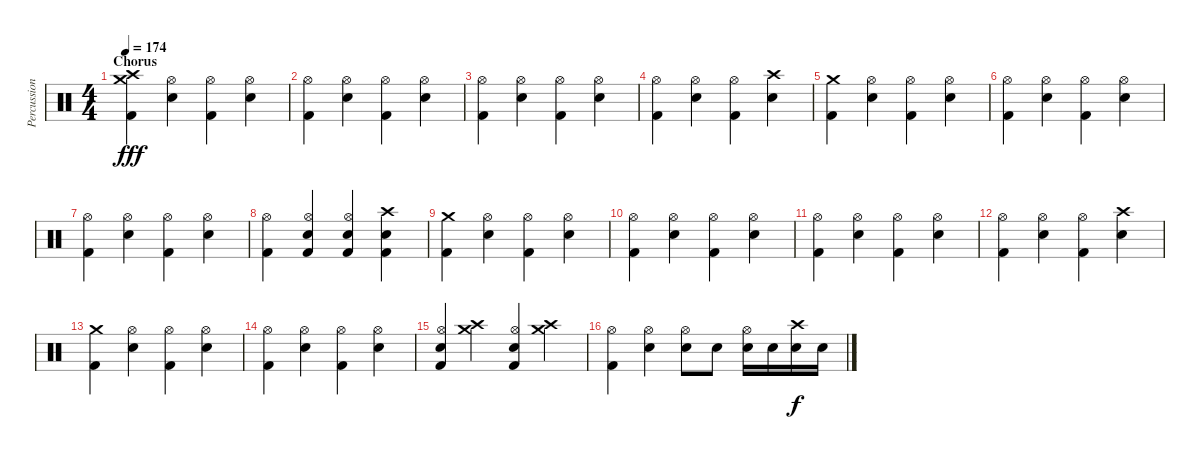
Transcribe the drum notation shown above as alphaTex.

\track ("Percussion" "Percussion") {instrument percussion}
\staff {score}
\articulation defaults
\ts (4 4)
\section ("" "Chorus")
\tempo 174
\clef neutral
\ks c
("Crash high (hit)" "Crash medium (hit)" "Kick (hit) 2").4{dy fff} ("Hi-Hat (open)" "Electric Snare (hit)").4 ("Hi-Hat (open)" "Kick (hit) 2").4 ("Hi-Hat (open)" "Electric Snare (hit)").4 |
("Hi-Hat (open)" "Kick (hit) 2").4 ("Hi-Hat (open)" "Electric Snare (hit)").4 ("Hi-Hat (open)" "Kick (hit) 2").4 ("Hi-Hat (open)" "Electric Snare (hit)").4 |
("Hi-Hat (open)" "Kick (hit) 2").4 ("Hi-Hat (open)" "Electric Snare (hit)").4 ("Hi-Hat (open)" "Kick (hit) 2").4 ("Hi-Hat (open)" "Electric Snare (hit)").4 |
("Hi-Hat (open)" "Kick (hit) 2").4 ("Hi-Hat (open)" "Electric Snare (hit)").4 ("Hi-Hat (open)" "Kick (hit) 2").4 ("Crash high (hit)" "Electric Snare (hit)").4 |
("Crash medium (hit)" "Kick (hit) 2").4 ("Hi-Hat (open)" "Electric Snare (hit)").4 ("Hi-Hat (open)" "Kick (hit) 2").4 ("Hi-Hat (open)" "Electric Snare (hit)").4 |
("Hi-Hat (open)" "Kick (hit) 2").4 ("Hi-Hat (open)" "Electric Snare (hit)").4 ("Hi-Hat (open)" "Kick (hit) 2").4 ("Hi-Hat (open)" "Electric Snare (hit)").4 |
("Hi-Hat (open)" "Kick (hit) 2").4 ("Hi-Hat (open)" "Electric Snare (hit)").4 ("Hi-Hat (open)" "Kick (hit) 2").4 ("Hi-Hat (open)" "Electric Snare (hit)").4 |
("Hi-Hat (open)" "Kick (hit) 2").4 ("Hi-Hat (open)" "Electric Snare (hit)" "Kick (hit) 2").4 ("Hi-Hat (open)" "Electric Snare (hit)" "Kick (hit) 2").4 ("Crash high (hit)" "Electric Snare (hit)" "Kick (hit) 2").4 |
("Crash medium (hit)" "Kick (hit) 2").4 ("Hi-Hat (open)" "Electric Snare (hit)").4 ("Hi-Hat (open)" "Kick (hit) 2").4 ("Hi-Hat (open)" "Electric Snare (hit)").4 |
("Hi-Hat (open)" "Kick (hit) 2").4 ("Hi-Hat (open)" "Electric Snare (hit)").4 ("Hi-Hat (open)" "Kick (hit) 2").4 ("Hi-Hat (open)" "Electric Snare (hit)").4 |
("Hi-Hat (open)" "Kick (hit) 2").4 ("Hi-Hat (open)" "Electric Snare (hit)").4 ("Hi-Hat (open)" "Kick (hit) 2").4 ("Hi-Hat (open)" "Electric Snare (hit)").4 |
("Hi-Hat (open)" "Kick (hit) 2").4 ("Hi-Hat (open)" "Electric Snare (hit)").4 ("Hi-Hat (open)" "Kick (hit) 2").4 ("Crash high (hit)" "Electric Snare (hit)").4 |
("Crash medium (hit)" "Kick (hit) 2").4 ("Hi-Hat (open)" "Electric Snare (hit)").4 ("Hi-Hat (open)" "Kick (hit) 2").4 ("Hi-Hat (open)" "Electric Snare (hit)").4 |
("Hi-Hat (open)" "Kick (hit) 2").4 ("Hi-Hat (open)" "Electric Snare (hit)").4 ("Hi-Hat (open)" "Kick (hit) 2").4 ("Hi-Hat (open)" "Electric Snare (hit)").4 |
("Hi-Hat (open)" "Electric Snare (hit)" "Kick (hit) 2").4 ("Crash high (hit)" "Crash medium (hit)").4 ("Hi-Hat (open)" "Electric Snare (hit)" "Kick (hit) 2").4 ("Crash high (hit)" "Crash medium (hit)").4 |
("Hi-Hat (open)" "Kick (hit) 2").4 ("Hi-Hat (open)" "Snare (hit) 2").4 ("Hi-Hat (open)" "Snare (hit) 2").8 "Snare (hit) 2".8 ("Hi-Hat (open)" "Snare (hit) 2").16 "Snare (hit) 2".16 ("Crash high (hit)" "Snare (hit) 2").16{dy f} "Snare (hit) 2".16
